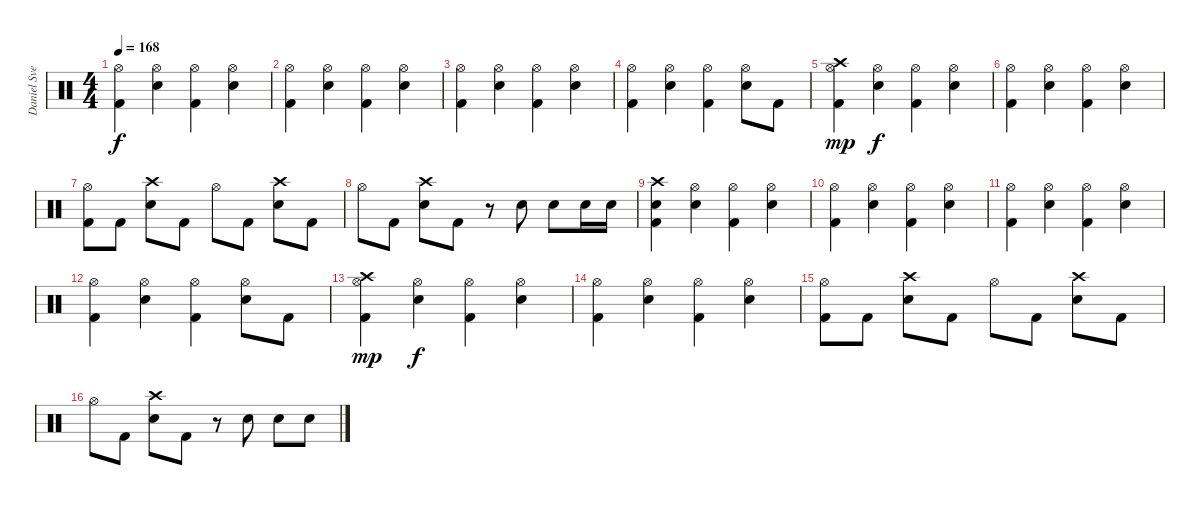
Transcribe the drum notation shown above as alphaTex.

\track ("Daniel Svensson" "Daniel Sve") {instrument percussion}
\staff {score}
\articulation defaults
\ts (4 4)
\tempo 168
\clef neutral
\ks c
("Hi-Hat (open)" "Kick (hit) 2").4{dy f} ("Hi-Hat (open)" "Electric Snare (hit)").4 ("Hi-Hat (open)" "Kick (hit) 2").4 ("Hi-Hat (open)" "Electric Snare (hit)").4 |
("Hi-Hat (open)" "Kick (hit) 2").4 ("Hi-Hat (open)" "Electric Snare (hit)").4 ("Hi-Hat (open)" "Kick (hit) 2").4 ("Hi-Hat (open)" "Electric Snare (hit)").4 |
("Hi-Hat (open)" "Kick (hit) 2").4 ("Hi-Hat (open)" "Electric Snare (hit)").4 ("Hi-Hat (open)" "Kick (hit) 2").4 ("Hi-Hat (open)" "Electric Snare (hit)").4 |
("Hi-Hat (open)" "Kick (hit) 2").4 ("Hi-Hat (open)" "Electric Snare (hit)").4 ("Hi-Hat (open)" "Kick (hit) 2").4 ("Hi-Hat (open)" "Electric Snare (hit)").8 "Kick (hit) 2".8 |
("Crash high (hit)" "Hi-Hat (open)" "Kick (hit) 2").4{dy mp} ("Hi-Hat (open)" "Electric Snare (hit)").4{dy f} ("Hi-Hat (open)" "Kick (hit) 2").4 ("Hi-Hat (open)" "Electric Snare (hit)").4 |
("Hi-Hat (open)" "Kick (hit) 2").4 ("Hi-Hat (open)" "Electric Snare (hit)").4 ("Hi-Hat (open)" "Kick (hit) 2").4 ("Hi-Hat (open)" "Electric Snare (hit)").4 |
("Hi-Hat (open)" "Kick (hit) 2").8 "Kick (hit) 2".8 ("Crash high (hit)" "Electric Snare (hit)").8 "Kick (hit) 2".8 "Hi-Hat (open)".8 "Kick (hit) 2".8 ("Crash high (hit)" "Electric Snare (hit)").8 "Kick (hit) 2".8 |
"Hi-Hat (open)".8 "Kick (hit) 2".8 ("Crash high (hit)" "Electric Snare (hit)").8 "Kick (hit) 2".8 r.8 "Electric Snare (hit)".8 "Electric Snare (hit)".8 "Electric Snare (hit)".16 "Electric Snare (hit)".16 |
("Crash high (hit)" "Electric Snare (hit)" "Kick (hit) 2").4 ("Hi-Hat (open)" "Electric Snare (hit)").4 ("Hi-Hat (open)" "Kick (hit) 2").4 ("Hi-Hat (open)" "Electric Snare (hit)").4 |
("Hi-Hat (open)" "Kick (hit) 2").4 ("Hi-Hat (open)" "Electric Snare (hit)").4 ("Hi-Hat (open)" "Kick (hit) 2").4 ("Hi-Hat (open)" "Electric Snare (hit)").4 |
("Hi-Hat (open)" "Kick (hit) 2").4 ("Hi-Hat (open)" "Electric Snare (hit)").4 ("Hi-Hat (open)" "Kick (hit) 2").4 ("Hi-Hat (open)" "Electric Snare (hit)").4 |
("Hi-Hat (open)" "Kick (hit) 2").4 ("Hi-Hat (open)" "Electric Snare (hit)").4 ("Hi-Hat (open)" "Kick (hit) 2").4 ("Hi-Hat (open)" "Electric Snare (hit)").8 "Kick (hit) 2".8 |
("Crash high (hit)" "Hi-Hat (open)" "Kick (hit) 2").4{dy mp} ("Hi-Hat (open)" "Electric Snare (hit)").4{dy f} ("Hi-Hat (open)" "Kick (hit) 2").4 ("Hi-Hat (open)" "Electric Snare (hit)").4 |
("Hi-Hat (open)" "Kick (hit) 2").4 ("Hi-Hat (open)" "Electric Snare (hit)").4 ("Hi-Hat (open)" "Kick (hit) 2").4 ("Hi-Hat (open)" "Electric Snare (hit)").4 |
("Hi-Hat (open)" "Kick (hit) 2").8 "Kick (hit) 2".8 ("Crash high (hit)" "Electric Snare (hit)").8 "Kick (hit) 2".8 "Hi-Hat (open)".8 "Kick (hit) 2".8 ("Crash high (hit)" "Electric Snare (hit)").8 "Kick (hit) 2".8 |
"Hi-Hat (open)".8 "Kick (hit) 2".8 ("Crash high (hit)" "Electric Snare (hit)").8 "Kick (hit) 2".8 r.8 "Electric Snare (hit)".8 "Electric Snare (hit)".8 "Electric Snare (hit)".8
